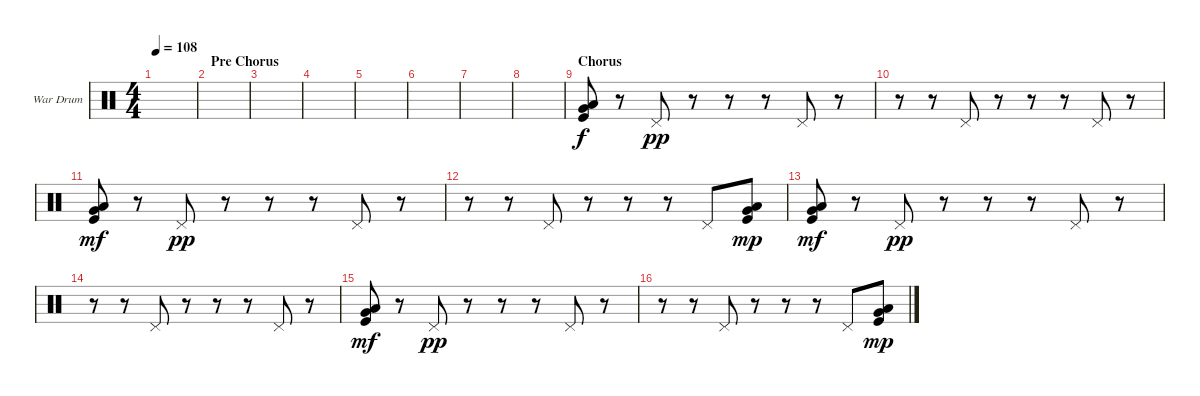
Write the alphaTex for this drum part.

\defaultSystemsLayout 4
\bracketExtendMode groupsimilarinstruments
\firstSystemTrackNameOrientation horizontal
\otherSystemsTrackNameOrientation horizontal
\track ("War Drum" "War Drum") {instrument percussion}
\staff {score}
\articulation defaults
\ts (4 4)
\tempo 108
\clef neutral
\scale
0.333333
\ks c
|
\section ("" "Pre Chorus")
\scale
0.333333 |
\scale
0.333333 |
\scale
0.333333 |
\scale
0.333333 |
\scale
0.333333 |
\scale
0.333333 |
\scale
0.333333 |
\section ("" "Chorus")
\scale
0.333333 ("Kick (hit)" "Low Tom (hit)" "Very Low Tom (hit)").8 r.8 "Pedal Hi-Hat (hit)".8{dy pp} r.8 r.8 r.8 "Pedal Hi-Hat (hit)".8 r.8 |
\scale
0.333333 r.8 r.8 "Pedal Hi-Hat (hit)".8 r.8 r.8 r.8 "Pedal Hi-Hat (hit)".8 r.8 |
\scale
0.333333 ("Kick (hit)" "Low Tom (hit)" "Very Low Tom (hit)").8{dy mf} r.8 "Pedal Hi-Hat (hit)".8{dy pp} r.8 r.8 r.8 "Pedal Hi-Hat (hit)".8 r.8 |
\scale
0.333333 r.8 r.8 "Pedal Hi-Hat (hit)".8 r.8 r.8 r.8 "Pedal Hi-Hat (hit)".8 ("Kick (hit)" "Low Tom (hit)" "Very Low Tom (hit)").8{dy mp} |
\scale
0.333333 ("Kick (hit)" "Low Tom (hit)" "Very Low Tom (hit)").8{dy mf} r.8 "Pedal Hi-Hat (hit)".8{dy pp} r.8 r.8 r.8 "Pedal Hi-Hat (hit)".8 r.8 |
\scale
0.333333 r.8 r.8 "Pedal Hi-Hat (hit)".8 r.8 r.8 r.8 "Pedal Hi-Hat (hit)".8 r.8 |
\scale
0.333333 ("Kick (hit)" "Low Tom (hit)" "Very Low Tom (hit)").8{dy mf} r.8 "Pedal Hi-Hat (hit)".8{dy pp} r.8 r.8 r.8 "Pedal Hi-Hat (hit)".8 r.8 |
r.8 r.8 "Pedal Hi-Hat (hit)".8 r.8 r.8 r.8 "Pedal Hi-Hat (hit)".8 ("Kick (hit)" "Low Tom (hit)" "Very Low Tom (hit)").8{dy mp}
